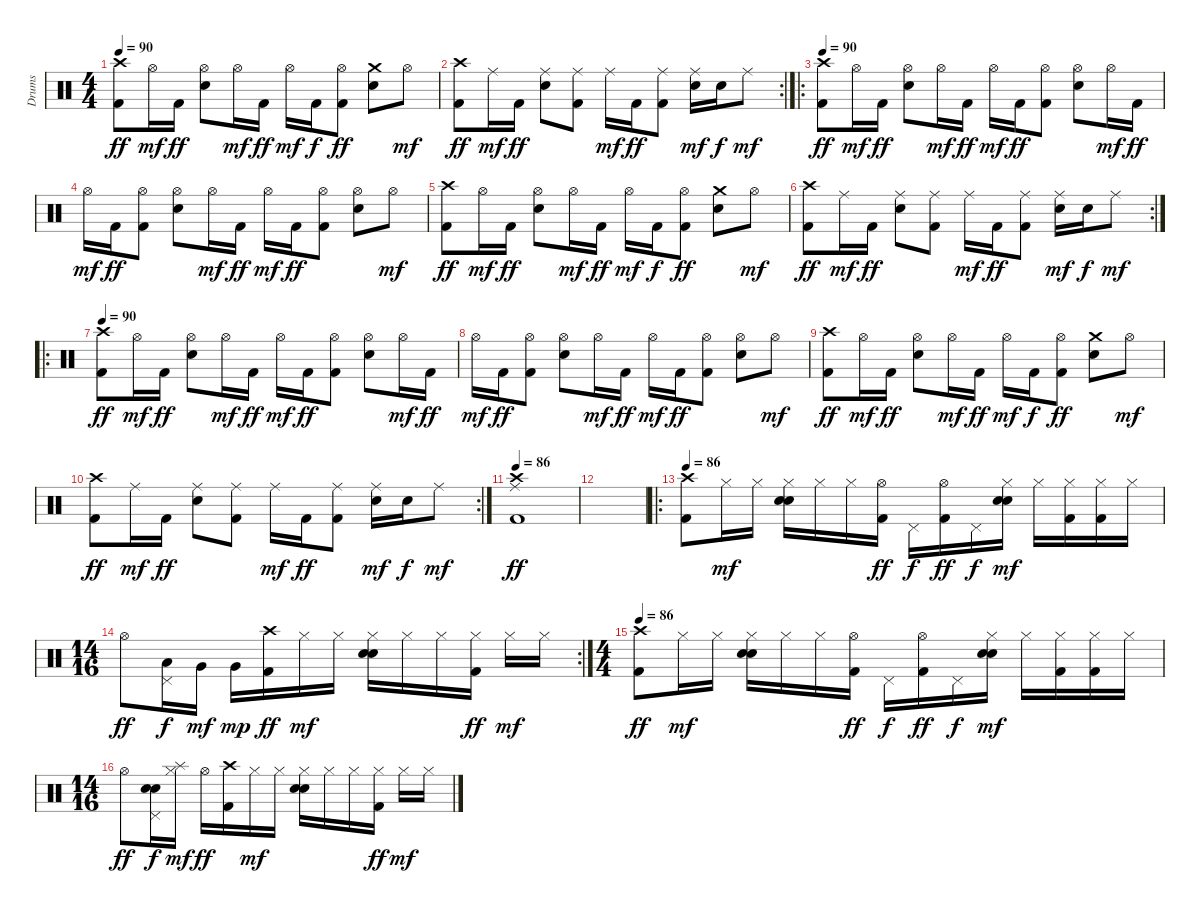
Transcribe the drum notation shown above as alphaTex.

\track ("Drums" "Drums") {instrument percussion}
\staff {score}
\articulation defaults
\ts (4 4)
\tempo 90
\clef neutral
\ks c
("Crash high (hit)" "Kick (hit) 2").8{dy ff} "Hi-Hat (open)".16{dy mf} "Kick (hit) 2".16{dy ff} ("Hi-Hat (open)" "Electric Snare (hit)").8 "Hi-Hat (open)".16{dy mf} "Kick (hit) 2".16{dy ff} "Hi-Hat (open)".16{dy mf} "Kick (hit) 2".16{dy f} ("Hi-Hat (open)" "Kick (hit) 2").8{dy ff} ("Crash medium (hit)" "Electric Snare (hit)").8 "Hi-Hat (open)".8{dy mf} |
\rc 2
("Crash high (hit)" "Kick (hit) 2").8{dy ff} "Ride (middle)".16{dy mf} "Kick (hit) 2".16{dy ff} ("Ride (middle)" "Electric Snare (hit)").8 ("Ride (middle)" "Kick (hit) 2").8 "Ride (middle)".16{dy mf} "Kick (hit) 2".16{dy ff} ("Ride (middle)" "Kick (hit) 2").8 ("Ride (middle)" "Electric Snare (hit)").16{dy mf} "Electric Snare (hit)".16{dy f} "Ride (middle)".8{dy mf} |
\ro
\tempo 90
("Crash high (hit)" "Kick (hit) 2").8{dy ff} "Hi-Hat (open)".16{dy mf} "Kick (hit) 2".16{dy ff} ("Hi-Hat (open)" "Electric Snare (hit)").8 "Hi-Hat (open)".16{dy mf} "Kick (hit) 2".16{dy ff} "Hi-Hat (open)".16{dy mf} "Kick (hit) 2".16{dy ff} ("Hi-Hat (open)" "Kick (hit) 2").8 ("Hi-Hat (open)" "Electric Snare (hit)").8 "Hi-Hat (open)".16{dy mf} "Kick (hit) 2".16{dy ff} |
"Hi-Hat (open)".16{dy mf} "Kick (hit) 2".16{dy ff} ("Hi-Hat (open)" "Kick (hit) 2").8 ("Hi-Hat (open)" "Electric Snare (hit)").8 "Hi-Hat (open)".16{dy mf} "Kick (hit) 2".16{dy ff} "Hi-Hat (open)".16{dy mf} "Kick (hit) 2".16{dy ff} ("Hi-Hat (open)" "Kick (hit) 2").8 ("Hi-Hat (open)" "Electric Snare (hit)").8 "Hi-Hat (open)".8{dy mf} |
("Crash high (hit)" "Kick (hit) 2").8{dy ff} "Hi-Hat (open)".16{dy mf} "Kick (hit) 2".16{dy ff} ("Hi-Hat (open)" "Electric Snare (hit)").8 "Hi-Hat (open)".16{dy mf} "Kick (hit) 2".16{dy ff} "Hi-Hat (open)".16{dy mf} "Kick (hit) 2".16{dy f} ("Hi-Hat (open)" "Kick (hit) 2").8{dy ff} ("Crash medium (hit)" "Electric Snare (hit)").8 "Hi-Hat (open)".8{dy mf} |
\rc 2
("Crash high (hit)" "Kick (hit) 2").8{dy ff} "Ride (middle)".16{dy mf} "Kick (hit) 2".16{dy ff} ("Ride (middle)" "Electric Snare (hit)").8 ("Ride (middle)" "Kick (hit) 2").8 "Ride (middle)".16{dy mf} "Kick (hit) 2".16{dy ff} ("Ride (middle)" "Kick (hit) 2").8 ("Ride (middle)" "Electric Snare (hit)").16{dy mf} "Electric Snare (hit)".16{dy f} "Ride (middle)".8{dy mf} |
\ro
\tempo 90
("Crash high (hit)" "Kick (hit) 2").8{dy ff} "Hi-Hat (open)".16{dy mf} "Kick (hit) 2".16{dy ff} ("Hi-Hat (open)" "Electric Snare (hit)").8 "Hi-Hat (open)".16{dy mf} "Kick (hit) 2".16{dy ff} "Hi-Hat (open)".16{dy mf} "Kick (hit) 2".16{dy ff} ("Hi-Hat (open)" "Kick (hit) 2").8 ("Hi-Hat (open)" "Electric Snare (hit)").8 "Hi-Hat (open)".16{dy mf} "Kick (hit) 2".16{dy ff} |
"Hi-Hat (open)".16{dy mf} "Kick (hit) 2".16{dy ff} ("Hi-Hat (open)" "Kick (hit) 2").8 ("Hi-Hat (open)" "Electric Snare (hit)").8 "Hi-Hat (open)".16{dy mf} "Kick (hit) 2".16{dy ff} "Hi-Hat (open)".16{dy mf} "Kick (hit) 2".16{dy ff} ("Hi-Hat (open)" "Kick (hit) 2").8 ("Hi-Hat (open)" "Electric Snare (hit)").8 "Hi-Hat (open)".8{dy mf} |
("Crash high (hit)" "Kick (hit) 2").8{dy ff} "Hi-Hat (open)".16{dy mf} "Kick (hit) 2".16{dy ff} ("Hi-Hat (open)" "Electric Snare (hit)").8 "Hi-Hat (open)".16{dy mf} "Kick (hit) 2".16{dy ff} "Hi-Hat (open)".16{dy mf} "Kick (hit) 2".16{dy f} ("Hi-Hat (open)" "Kick (hit) 2").8{dy ff} ("Crash medium (hit)" "Electric Snare (hit)").8 "Hi-Hat (open)".8{dy mf} |
\rc 2
("Crash high (hit)" "Kick (hit) 2").8{dy ff} "Ride (middle)".16{dy mf} "Kick (hit) 2".16{dy ff} ("Ride (middle)" "Electric Snare (hit)").8 ("Ride (middle)" "Kick (hit) 2").8 "Ride (middle)".16{dy mf} "Kick (hit) 2".16{dy ff} ("Ride (middle)" "Kick (hit) 2").8 ("Ride (middle)" "Electric Snare (hit)").16{dy mf} "Electric Snare (hit)".16{dy f} "Ride (middle)".8{dy mf} |
\tempo 86
("Ride (middle)" "Crash high (hit)" "Kick (hit) 2").1{dy ff} |
|
\ro
\tempo 86
("Crash high (hit)" "Kick (hit) 2").8 "Hi-Hat (closed)".16{dy mf} "Hi-Hat (closed)".16 ("Hi-Hat (closed)" "Electric Snare (hit)" "Metronome (bell)").16 "Hi-Hat (closed)".16 "Hi-Hat (closed)".16 ("Hi-Hat (open)" "Kick (hit) 2").16{dy ff} "Pedal Hi-Hat (hit)".16{dy f} ("Hi-Hat (open)" "Kick (hit) 2").16{dy ff} "Pedal Hi-Hat (hit)".16{dy f} ("Hi-Hat (closed)" "Electric Snare (hit)" "Metronome (bell)").16{dy mf} "Hi-Hat (closed)".16 ("Hi-Hat (closed)" "Kick (hit) 2").16 ("Hi-Hat (closed)" "Kick (hit) 2").16 "Hi-Hat (closed)".16 |
\rc 2
\ts (14 16)
"Hi-Hat (open)".8{dy ff} ("Pedal Hi-Hat (hit)" "Low Tom (hit)").16{dy f} "Very Low Tom (hit)".16{dy mf} "Very Low Tom (hit)".16{dy mp} ("Crash high (hit)" "Kick (hit) 2").16{dy ff} "Hi-Hat (closed)".16{dy mf} "Hi-Hat (closed)".16 ("Hi-Hat (closed)" "Electric Snare (hit)" "Metronome (bell)").16 "Hi-Hat (closed)".16 "Hi-Hat (closed)".16 ("Hi-Hat (closed)" "Kick (hit) 2").16{dy ff} "Hi-Hat (closed)".16{dy mf} "Hi-Hat (closed)".16 |
\ts (4 4)
\tempo 86
("Crash high (hit)" "Kick (hit) 2").8{dy ff} "Hi-Hat (closed)".16{dy mf} "Hi-Hat (closed)".16 ("Hi-Hat (closed)" "Electric Snare (hit)" "Metronome (bell)").16 "Hi-Hat (closed)".16 "Hi-Hat (closed)".16 ("Hi-Hat (open)" "Kick (hit) 2").16{dy ff} "Pedal Hi-Hat (hit)".16{dy f} ("Hi-Hat (open)" "Kick (hit) 2").16{dy ff} "Pedal Hi-Hat (hit)".16{dy f} ("Hi-Hat (closed)" "Electric Snare (hit)" "Metronome (bell)").16{dy mf} "Hi-Hat (closed)".16 ("Hi-Hat (closed)" "Kick (hit) 2").16 ("Hi-Hat (closed)" "Kick (hit) 2").16 "Hi-Hat (closed)".16 |
\ts (14 16)
"Hi-Hat (open)".8{dy ff} ("Pedal Hi-Hat (hit)" "Electric Snare (hit)" "Metronome (bell)").16{dy f} ("Splash (hit)" "Hi-Hat (closed)").16{dy mf} "Hi-Hat (open)".16{dy ff} ("Crash high (hit)" "Kick (hit) 2").16 "Hi-Hat (closed)".16{dy mf} "Hi-Hat (closed)".16 ("Hi-Hat (closed)" "Electric Snare (hit)" "Metronome (bell)").16 "Hi-Hat (closed)".16 "Hi-Hat (closed)".16 ("Hi-Hat (closed)" "Kick (hit) 2").16{dy ff} "Hi-Hat (closed)".16{dy mf} "Hi-Hat (closed)".16
